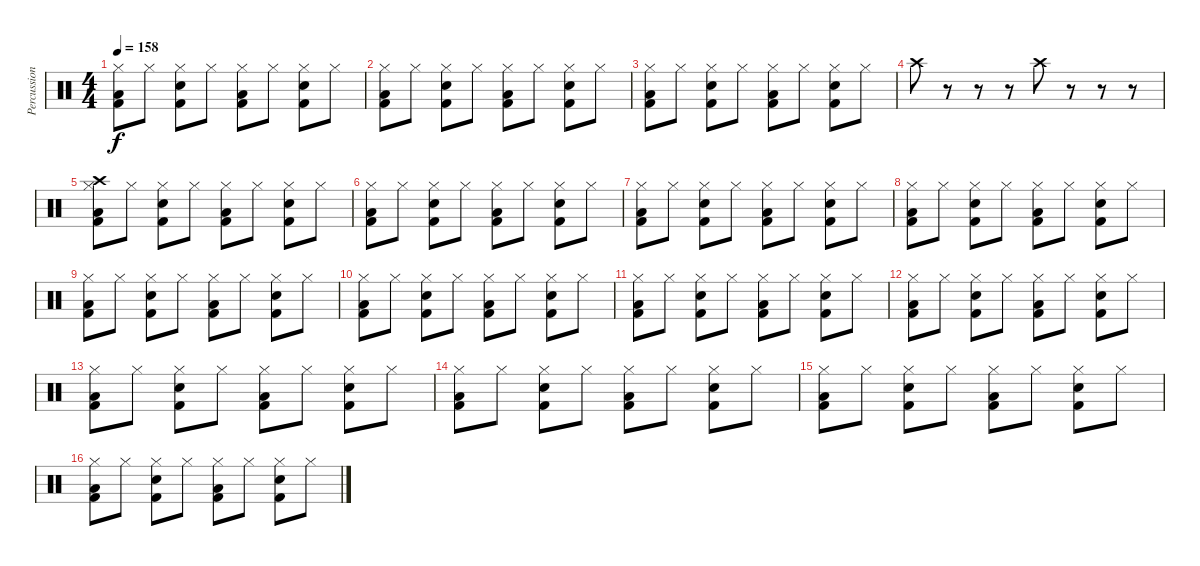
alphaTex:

\track ("Percussions" "Percussion") {instrument percussion}
\staff {score}
\articulation defaults
\ts (4 4)
\tempo 158
\clef neutral
\ks c
("Hi-Hat (closed)" "Low Floor Tom (hit)" "Kick (hit) 2").8{dy f} "Hi-Hat (closed)".8 ("Hi-Hat (closed)" "Snare (hit) 2" "Kick (hit) 2").8 "Hi-Hat (closed)".8 ("Hi-Hat (closed)" "Low Floor Tom (hit)" "Kick (hit) 2").8 "Hi-Hat (closed)".8 ("Hi-Hat (closed)" "Snare (hit) 2" "Kick (hit) 2").8 "Hi-Hat (closed)".8 |
("Hi-Hat (closed)" "Low Floor Tom (hit)" "Kick (hit) 2").8 "Hi-Hat (closed)".8 ("Hi-Hat (closed)" "Snare (hit) 2" "Kick (hit) 2").8 "Hi-Hat (closed)".8 ("Hi-Hat (closed)" "Low Floor Tom (hit)" "Kick (hit) 2").8 "Hi-Hat (closed)".8 ("Hi-Hat (closed)" "Snare (hit) 2" "Kick (hit) 2").8 "Hi-Hat (closed)".8 |
("Hi-Hat (closed)" "Low Floor Tom (hit)" "Kick (hit) 2").8 "Hi-Hat (closed)".8 ("Hi-Hat (closed)" "Snare (hit) 2" "Kick (hit) 2").8 "Hi-Hat (closed)".8 ("Hi-Hat (closed)" "Low Floor Tom (hit)" "Kick (hit) 2").8 "Hi-Hat (closed)".8 ("Hi-Hat (closed)" "Snare (hit) 2" "Kick (hit) 2").8 "Hi-Hat (closed)".8 |
"Crash high (hit)".8{volume 16} r.8 r.8 r.8 "Crash high (hit)".8 r.8 r.8 r.8 |
("Hi-Hat (closed)" "Crash high (hit)" "Low Floor Tom (hit)" "Kick (hit) 2").8 "Hi-Hat (closed)".8 ("Hi-Hat (closed)" "Snare (hit) 2" "Kick (hit) 2").8 "Hi-Hat (closed)".8 ("Hi-Hat (closed)" "Low Floor Tom (hit)" "Kick (hit) 2").8 "Hi-Hat (closed)".8 ("Hi-Hat (closed)" "Snare (hit) 2" "Kick (hit) 2").8 "Hi-Hat (closed)".8 |
("Hi-Hat (closed)" "Low Floor Tom (hit)" "Kick (hit) 2").8 "Hi-Hat (closed)".8 ("Hi-Hat (closed)" "Snare (hit) 2" "Kick (hit) 2").8 "Hi-Hat (closed)".8 ("Hi-Hat (closed)" "Low Floor Tom (hit)" "Kick (hit) 2").8 "Hi-Hat (closed)".8 ("Hi-Hat (closed)" "Snare (hit) 2" "Kick (hit) 2").8 "Hi-Hat (closed)".8 |
("Hi-Hat (closed)" "Low Floor Tom (hit)" "Kick (hit) 2").8 "Hi-Hat (closed)".8 ("Hi-Hat (closed)" "Snare (hit) 2" "Kick (hit) 2").8 "Hi-Hat (closed)".8 ("Hi-Hat (closed)" "Low Floor Tom (hit)" "Kick (hit) 2").8 "Hi-Hat (closed)".8 ("Hi-Hat (closed)" "Snare (hit) 2" "Kick (hit) 2").8 "Hi-Hat (closed)".8 |
("Hi-Hat (closed)" "Low Floor Tom (hit)" "Kick (hit) 2").8 "Hi-Hat (closed)".8 ("Hi-Hat (closed)" "Snare (hit) 2" "Kick (hit) 2").8 "Hi-Hat (closed)".8 ("Hi-Hat (closed)" "Low Floor Tom (hit)" "Kick (hit) 2").8 "Hi-Hat (closed)".8 ("Hi-Hat (closed)" "Snare (hit) 2" "Kick (hit) 2").8 "Hi-Hat (closed)".8 |
("Hi-Hat (closed)" "Low Floor Tom (hit)" "Kick (hit) 2").8 "Hi-Hat (closed)".8 ("Hi-Hat (closed)" "Snare (hit) 2" "Kick (hit) 2").8 "Hi-Hat (closed)".8 ("Hi-Hat (closed)" "Low Floor Tom (hit)" "Kick (hit) 2").8 "Hi-Hat (closed)".8 ("Hi-Hat (closed)" "Snare (hit) 2" "Kick (hit) 2").8 "Hi-Hat (closed)".8 |
("Hi-Hat (closed)" "Low Floor Tom (hit)" "Kick (hit) 2").8 "Hi-Hat (closed)".8 ("Hi-Hat (closed)" "Snare (hit) 2" "Kick (hit) 2").8 "Hi-Hat (closed)".8 ("Hi-Hat (closed)" "Low Floor Tom (hit)" "Kick (hit) 2").8 "Hi-Hat (closed)".8 ("Hi-Hat (closed)" "Snare (hit) 2" "Kick (hit) 2").8 "Hi-Hat (closed)".8 |
("Hi-Hat (closed)" "Low Floor Tom (hit)" "Kick (hit) 2").8 "Hi-Hat (closed)".8 ("Hi-Hat (closed)" "Snare (hit) 2" "Kick (hit) 2").8 "Hi-Hat (closed)".8 ("Hi-Hat (closed)" "Low Floor Tom (hit)" "Kick (hit) 2").8 "Hi-Hat (closed)".8 ("Hi-Hat (closed)" "Snare (hit) 2" "Kick (hit) 2").8 "Hi-Hat (closed)".8 |
("Hi-Hat (closed)" "Low Floor Tom (hit)" "Kick (hit) 2").8 "Hi-Hat (closed)".8 ("Hi-Hat (closed)" "Snare (hit) 2" "Kick (hit) 2").8 "Hi-Hat (closed)".8 ("Hi-Hat (closed)" "Low Floor Tom (hit)" "Kick (hit) 2").8 "Hi-Hat (closed)".8 ("Hi-Hat (closed)" "Snare (hit) 2" "Kick (hit) 2").8 "Hi-Hat (closed)".8 |
("Hi-Hat (closed)" "Low Floor Tom (hit)" "Kick (hit) 2").8 "Hi-Hat (closed)".8 ("Hi-Hat (closed)" "Snare (hit) 2" "Kick (hit) 2").8 "Hi-Hat (closed)".8 ("Hi-Hat (closed)" "Low Floor Tom (hit)" "Kick (hit) 2").8 "Hi-Hat (closed)".8 ("Hi-Hat (closed)" "Snare (hit) 2" "Kick (hit) 2").8 "Hi-Hat (closed)".8 |
("Hi-Hat (closed)" "Low Floor Tom (hit)" "Kick (hit) 2").8 "Hi-Hat (closed)".8 ("Hi-Hat (closed)" "Snare (hit) 2" "Kick (hit) 2").8 "Hi-Hat (closed)".8 ("Hi-Hat (closed)" "Low Floor Tom (hit)" "Kick (hit) 2").8 "Hi-Hat (closed)".8 ("Hi-Hat (closed)" "Snare (hit) 2" "Kick (hit) 2").8 "Hi-Hat (closed)".8 |
("Hi-Hat (closed)" "Low Floor Tom (hit)" "Kick (hit) 2").8 "Hi-Hat (closed)".8 ("Hi-Hat (closed)" "Snare (hit) 2" "Kick (hit) 2").8 "Hi-Hat (closed)".8 ("Hi-Hat (closed)" "Low Floor Tom (hit)" "Kick (hit) 2").8 "Hi-Hat (closed)".8 ("Hi-Hat (closed)" "Snare (hit) 2" "Kick (hit) 2").8 "Hi-Hat (closed)".8 |
("Hi-Hat (closed)" "Low Floor Tom (hit)" "Kick (hit) 2").8 "Hi-Hat (closed)".8 ("Hi-Hat (closed)" "Snare (hit) 2" "Kick (hit) 2").8 "Hi-Hat (closed)".8 ("Hi-Hat (closed)" "Low Floor Tom (hit)" "Kick (hit) 2").8 "Hi-Hat (closed)".8 ("Hi-Hat (closed)" "Snare (hit) 2" "Kick (hit) 2").8 "Hi-Hat (closed)".8
